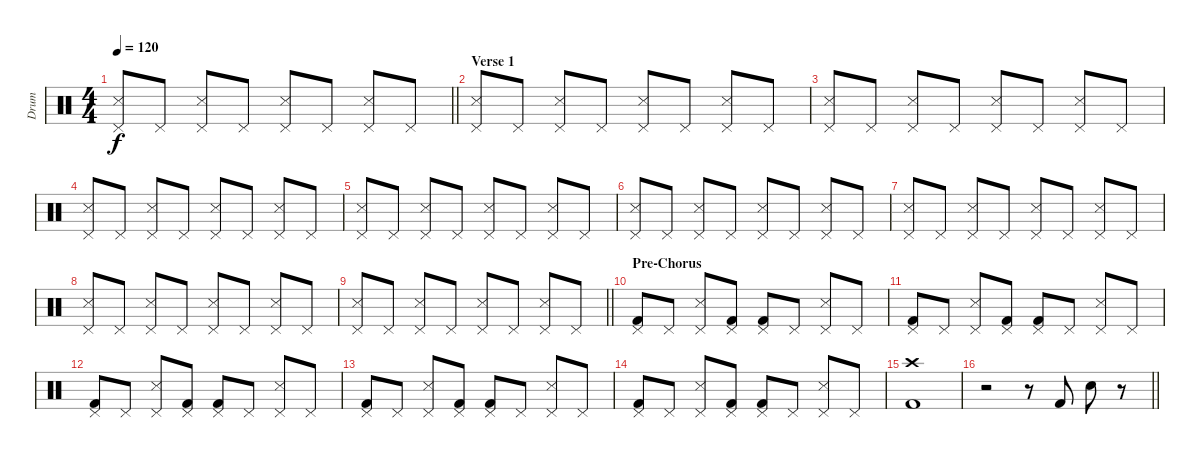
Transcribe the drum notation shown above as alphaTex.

\track ("Drum" "Drum") {instrument percussion}
\staff {score}
\articulation defaults
\ts (4 4)
\tempo 120
\clef neutral
\barLineRight lightlight
\ks c
("Pedal Hi-Hat (hit)" "Metronome (hit)").8{dy f} "Pedal Hi-Hat (hit)".8 ("Pedal Hi-Hat (hit)" "Metronome (hit)").8 "Pedal Hi-Hat (hit)".8 ("Pedal Hi-Hat (hit)" "Metronome (hit)").8 "Pedal Hi-Hat (hit)".8 ("Pedal Hi-Hat (hit)" "Metronome (hit)").8 "Pedal Hi-Hat (hit)".8 |
\section ("" "Verse 1")
("Pedal Hi-Hat (hit)" "Metronome (hit)").8 "Pedal Hi-Hat (hit)".8 ("Pedal Hi-Hat (hit)" "Metronome (hit)").8 "Pedal Hi-Hat (hit)".8 ("Pedal Hi-Hat (hit)" "Metronome (hit)").8 "Pedal Hi-Hat (hit)".8 ("Pedal Hi-Hat (hit)" "Metronome (hit)").8 "Pedal Hi-Hat (hit)".8 |
("Pedal Hi-Hat (hit)" "Metronome (hit)").8 "Pedal Hi-Hat (hit)".8 ("Pedal Hi-Hat (hit)" "Metronome (hit)").8 "Pedal Hi-Hat (hit)".8 ("Pedal Hi-Hat (hit)" "Metronome (hit)").8 "Pedal Hi-Hat (hit)".8 ("Pedal Hi-Hat (hit)" "Metronome (hit)").8 "Pedal Hi-Hat (hit)".8 |
("Pedal Hi-Hat (hit)" "Metronome (hit)").8 "Pedal Hi-Hat (hit)".8 ("Pedal Hi-Hat (hit)" "Metronome (hit)").8 "Pedal Hi-Hat (hit)".8 ("Pedal Hi-Hat (hit)" "Metronome (hit)").8 "Pedal Hi-Hat (hit)".8 ("Pedal Hi-Hat (hit)" "Metronome (hit)").8 "Pedal Hi-Hat (hit)".8 |
("Pedal Hi-Hat (hit)" "Metronome (hit)").8 "Pedal Hi-Hat (hit)".8 ("Pedal Hi-Hat (hit)" "Metronome (hit)").8 "Pedal Hi-Hat (hit)".8 ("Pedal Hi-Hat (hit)" "Metronome (hit)").8 "Pedal Hi-Hat (hit)".8 ("Pedal Hi-Hat (hit)" "Metronome (hit)").8 "Pedal Hi-Hat (hit)".8 |
("Pedal Hi-Hat (hit)" "Metronome (hit)").8 "Pedal Hi-Hat (hit)".8 ("Pedal Hi-Hat (hit)" "Metronome (hit)").8 "Pedal Hi-Hat (hit)".8 ("Pedal Hi-Hat (hit)" "Metronome (hit)").8 "Pedal Hi-Hat (hit)".8 ("Pedal Hi-Hat (hit)" "Metronome (hit)").8 "Pedal Hi-Hat (hit)".8 |
("Pedal Hi-Hat (hit)" "Metronome (hit)").8 "Pedal Hi-Hat (hit)".8 ("Pedal Hi-Hat (hit)" "Metronome (hit)").8 "Pedal Hi-Hat (hit)".8 ("Pedal Hi-Hat (hit)" "Metronome (hit)").8 "Pedal Hi-Hat (hit)".8 ("Pedal Hi-Hat (hit)" "Metronome (hit)").8 "Pedal Hi-Hat (hit)".8 |
("Pedal Hi-Hat (hit)" "Metronome (hit)").8 "Pedal Hi-Hat (hit)".8 ("Pedal Hi-Hat (hit)" "Metronome (hit)").8 "Pedal Hi-Hat (hit)".8 ("Pedal Hi-Hat (hit)" "Metronome (hit)").8 "Pedal Hi-Hat (hit)".8 ("Pedal Hi-Hat (hit)" "Metronome (hit)").8 "Pedal Hi-Hat (hit)".8 |
\barLineRight lightlight
("Pedal Hi-Hat (hit)" "Metronome (hit)").8 "Pedal Hi-Hat (hit)".8 ("Pedal Hi-Hat (hit)" "Metronome (hit)").8 "Pedal Hi-Hat (hit)".8 ("Pedal Hi-Hat (hit)" "Metronome (hit)").8 "Pedal Hi-Hat (hit)".8 ("Pedal Hi-Hat (hit)" "Metronome (hit)").8 "Pedal Hi-Hat (hit)".8 |
\section ("" "Pre-Chorus")
("Pedal Hi-Hat (hit)" "Kick (hit) 2").8 "Pedal Hi-Hat (hit)".8 ("Pedal Hi-Hat (hit)" "Metronome (hit)").8 ("Pedal Hi-Hat (hit)" "Kick (hit) 2").8 ("Pedal Hi-Hat (hit)" "Kick (hit) 2").8 "Pedal Hi-Hat (hit)".8 ("Pedal Hi-Hat (hit)" "Metronome (hit)").8 "Pedal Hi-Hat (hit)".8 |
("Pedal Hi-Hat (hit)" "Kick (hit) 2").8 "Pedal Hi-Hat (hit)".8 ("Pedal Hi-Hat (hit)" "Metronome (hit)").8 ("Pedal Hi-Hat (hit)" "Kick (hit) 2").8 ("Pedal Hi-Hat (hit)" "Kick (hit) 2").8 "Pedal Hi-Hat (hit)".8 ("Pedal Hi-Hat (hit)" "Metronome (hit)").8 "Pedal Hi-Hat (hit)".8 |
("Pedal Hi-Hat (hit)" "Kick (hit) 2").8 "Pedal Hi-Hat (hit)".8 ("Pedal Hi-Hat (hit)" "Metronome (hit)").8 ("Pedal Hi-Hat (hit)" "Kick (hit) 2").8 ("Pedal Hi-Hat (hit)" "Kick (hit) 2").8 "Pedal Hi-Hat (hit)".8 ("Pedal Hi-Hat (hit)" "Metronome (hit)").8 "Pedal Hi-Hat (hit)".8 |
("Pedal Hi-Hat (hit)" "Kick (hit) 2").8 "Pedal Hi-Hat (hit)".8 ("Pedal Hi-Hat (hit)" "Metronome (hit)").8 ("Pedal Hi-Hat (hit)" "Kick (hit) 2").8 ("Pedal Hi-Hat (hit)" "Kick (hit) 2").8 "Pedal Hi-Hat (hit)".8 ("Pedal Hi-Hat (hit)" "Metronome (hit)").8 "Pedal Hi-Hat (hit)".8 |
("Pedal Hi-Hat (hit)" "Kick (hit) 2").8 "Pedal Hi-Hat (hit)".8 ("Pedal Hi-Hat (hit)" "Metronome (hit)").8 ("Pedal Hi-Hat (hit)" "Kick (hit) 2").8 ("Pedal Hi-Hat (hit)" "Kick (hit) 2").8 "Pedal Hi-Hat (hit)".8 ("Pedal Hi-Hat (hit)" "Metronome (hit)").8 "Pedal Hi-Hat (hit)".8 |
("Kick (hit) 2" "Crash high (hit)").1 |
\barLineRight lightlight
r.2 r.8 "Kick (hit) 2".8 "Electric Snare (hit)".8 r.8
